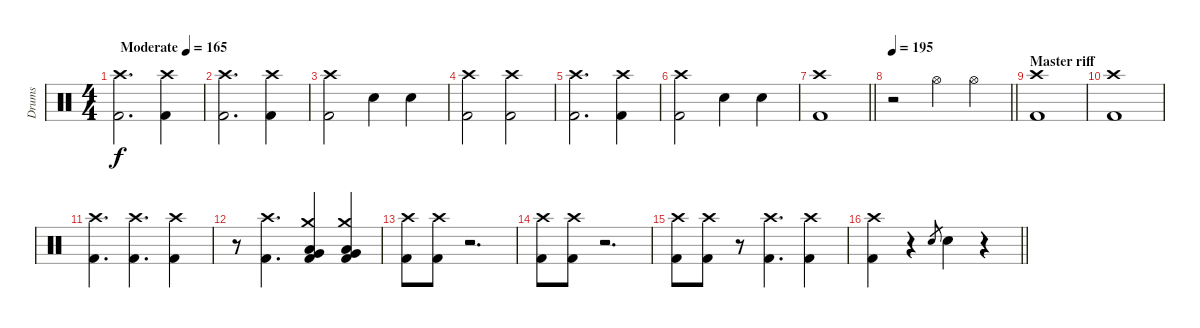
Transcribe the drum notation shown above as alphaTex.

\track ("Drums" "Drums") {instrument percussion}
\staff {score}
\articulation defaults
\ts (4 4)
\tempo (165 "Moderate")
\clef neutral
\ks c
("Crash high (hit)" "Kick (hit) 2").2{d dy f} ("Crash high (hit)" "Kick (hit) 2").4 |
("Crash high (hit)" "Kick (hit) 2").2{d} ("Crash high (hit)" "Kick (hit) 2").4 |
("Crash high (hit)" "Kick (hit) 2").2 "Snare (hit) 2".4 "Snare (hit) 2".4 |
("Crash high (hit)" "Kick (hit) 2").2 ("Crash high (hit)" "Kick (hit) 2").2 |
("Crash high (hit)" "Kick (hit) 2").2{d} ("Crash high (hit)" "Kick (hit) 2").4 |
("Crash high (hit)" "Kick (hit) 2").2 "Snare (hit) 2".4 "Snare (hit) 2".4 |
\barLineRight lightlight
("Crash high (hit)" "Kick (hit) 2").1 |
\tempo 195
\barLineRight lightlight
r.2 "Hi-Hat (open)".4 "Hi-Hat (open)".4 |
\section ("" "Master riff")
("Crash high (hit)" "Kick (hit) 2").1 |
("Crash high (hit)" "Kick (hit) 2").1 |
("Crash high (hit)" "Kick (hit) 2").4{d} ("Crash high (hit)" "Kick (hit) 2").4{d} ("Crash high (hit)" "Kick (hit) 2").4 |
r.8 ("Crash high (hit)" "Kick (hit) 2").4{d} ("Crash medium (hit)" "Low Floor Tom (hit)" "Very Low Tom (hit)" "Kick (hit) 2").4 ("Crash medium (hit)" "Low Floor Tom (hit)" "Very Low Tom (hit)" "Kick (hit) 2").4 |
("Crash high (hit)" "Kick (hit) 2").8 ("Crash high (hit)" "Kick (hit) 2").8 r.2{d} |
("Crash high (hit)" "Kick (hit) 2").8 ("Crash high (hit)" "Kick (hit) 2").8 r.2{d} |
("Crash high (hit)" "Kick (hit) 2").8 ("Crash high (hit)" "Kick (hit) 2").8 r.8 ("Crash high (hit)" "Kick (hit) 2").4{d} ("Crash high (hit)" "Kick (hit) 2").4 |
\barLineRight lightlight
("Crash high (hit)" "Kick (hit) 2").4 r.4 "Snare (hit) 2".8{gr} "Snare (hit) 2".4 r.4
